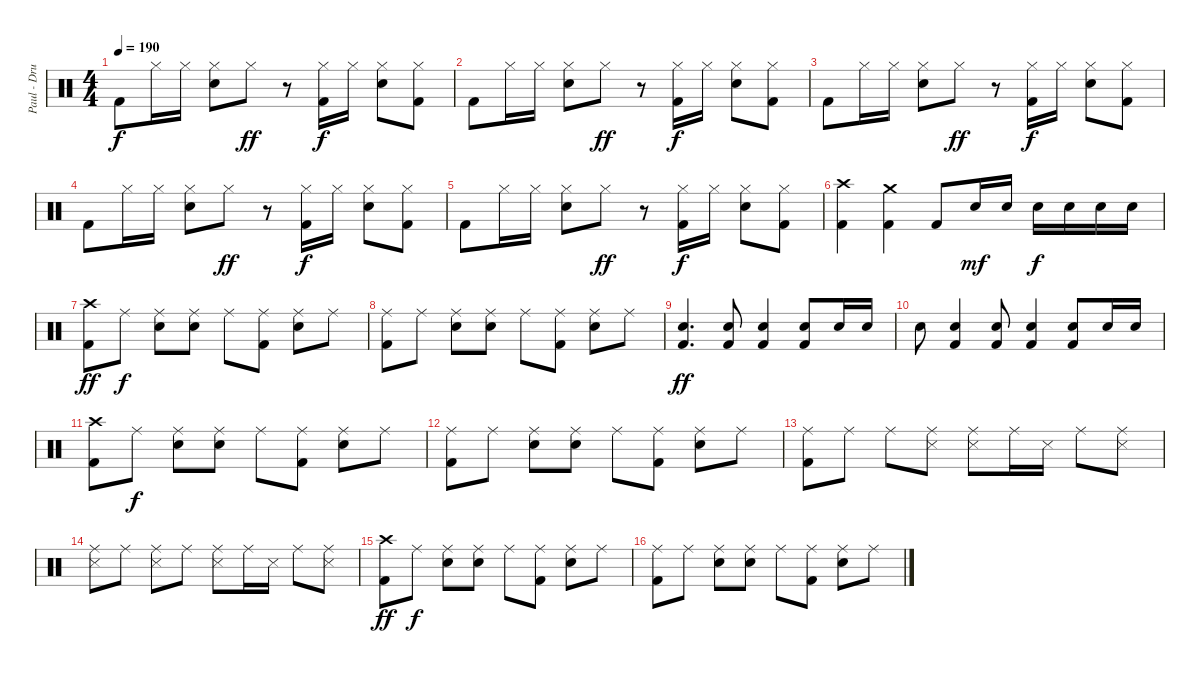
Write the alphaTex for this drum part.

\track ("Paul - Drums" "Paul - Dru") {instrument percussion}
\staff {score}
\articulation defaults
\ts (4 4)
\tempo 190
\clef neutral
\ks c "Kick (hit) 2".8{dy f} "Hi-Hat (closed)".16 "Hi-Hat (closed)".16
("Hi-Hat (closed)" "Electric Snare (hit)").8 "Hi-Hat (closed)".8{dy ff} r.8 ("Hi-Hat (closed)" "Kick (hit) 2").16{dy f} "Hi-Hat (closed)".16 ("Hi-Hat (closed)" "Electric Snare (hit)").8 ("Hi-Hat (closed)" "Kick (hit) 2").8 |
"Kick (hit) 2".8 "Hi-Hat (closed)".16 "Hi-Hat (closed)".16 ("Hi-Hat (closed)" "Electric Snare (hit)").8 "Hi-Hat (closed)".8{dy ff} r.8 ("Hi-Hat (closed)" "Kick (hit) 2").16{dy f} "Hi-Hat (closed)".16 ("Hi-Hat (closed)" "Electric Snare (hit)").8 ("Hi-Hat (closed)" "Kick (hit) 2").8 |
"Kick (hit) 2".8 "Hi-Hat (closed)".16 "Hi-Hat (closed)".16 ("Hi-Hat (closed)" "Electric Snare (hit)").8 "Hi-Hat (closed)".8{dy ff} r.8 ("Hi-Hat (closed)" "Kick (hit) 2").16{dy f} "Hi-Hat (closed)".16 ("Hi-Hat (closed)" "Electric Snare (hit)").8 ("Hi-Hat (closed)" "Kick (hit) 2").8 |
"Kick (hit) 2".8 "Hi-Hat (closed)".16 "Hi-Hat (closed)".16 ("Hi-Hat (closed)" "Electric Snare (hit)").8 "Hi-Hat (closed)".8{dy ff} r.8 ("Hi-Hat (closed)" "Kick (hit) 2").16{dy f} "Hi-Hat (closed)".16 ("Hi-Hat (closed)" "Electric Snare (hit)").8 ("Hi-Hat (closed)" "Kick (hit) 2").8 |
"Kick (hit) 2".8 "Hi-Hat (closed)".16 "Hi-Hat (closed)".16 ("Hi-Hat (closed)" "Electric Snare (hit)").8 "Hi-Hat (closed)".8{dy ff} r.8 ("Hi-Hat (closed)" "Kick (hit) 2").16{dy f} "Hi-Hat (closed)".16 ("Hi-Hat (closed)" "Electric Snare (hit)").8 ("Hi-Hat (closed)" "Kick (hit) 2").8 |
("Crash high (hit)" "Kick (hit) 2").4 ("Crash medium (hit)" "Kick (hit) 2").4 "Kick (hit) 2".8 "Electric Snare (hit)".16{dy mf} "Electric Snare (hit)".16 "Electric Snare (hit)".16{dy f} "Electric Snare (hit)".16 "Electric Snare (hit)".16 "Electric Snare (hit)".16 |
("Crash high (hit)" "Kick (hit) 2").8{dy ff} "Ride (middle)".8{dy f} ("Ride (middle)" "Electric Snare (hit)").8 ("Ride (middle)" "Electric Snare (hit)").8 "Ride (middle)".8 ("Ride (middle)" "Kick (hit) 2").8 ("Ride (middle)" "Electric Snare (hit)").8 "Ride (middle)".8 |
("Ride (middle)" "Kick (hit) 2").8 "Ride (middle)".8 ("Ride (middle)" "Electric Snare (hit)").8 ("Ride (middle)" "Electric Snare (hit)").8 "Ride (middle)".8 ("Ride (middle)" "Kick (hit) 2").8 ("Ride (middle)" "Electric Snare (hit)").8 "Ride (middle)".8 |
("Electric Snare (hit)" "Kick (hit) 2").4{d dy ff} ("Electric Snare (hit)" "Kick (hit) 2").8 ("Electric Snare (hit)" "Kick (hit) 2").4 ("Electric Snare (hit)" "Kick (hit) 2").8 "Electric Snare (hit)".16 "Electric Snare (hit)".16 |
"Electric Snare (hit)".8 ("Electric Snare (hit)" "Kick (hit) 2").4 ("Electric Snare (hit)" "Kick (hit) 2").8 ("Electric Snare (hit)" "Kick (hit) 2").4 ("Electric Snare (hit)" "Kick (hit) 2").8 "Electric Snare (hit)".16 "Electric Snare (hit)".16 |
("Crash high (hit)" "Kick (hit) 2").8 "Ride (middle)".8{dy f} ("Ride (middle)" "Electric Snare (hit)").8 ("Ride (middle)" "Electric Snare (hit)").8 "Ride (middle)".8 ("Ride (middle)" "Kick (hit) 2").8 ("Ride (middle)" "Electric Snare (hit)").8 "Ride (middle)".8 |
("Ride (middle)" "Kick (hit) 2").8 "Ride (middle)".8 ("Ride (middle)" "Electric Snare (hit)").8 ("Ride (middle)" "Electric Snare (hit)").8 "Ride (middle)".8 ("Ride (middle)" "Kick (hit) 2").8 ("Ride (middle)" "Electric Snare (hit)").8 "Ride (middle)".8 |
("Ride (middle)" "Kick (hit) 2").8 "Ride (middle)".8 "Ride (middle)".8 ("Ride (middle)" "Snare (side stick) 3").8 ("Ride (middle)" "Snare (side stick) 3").8 "Ride (middle)".16 "Snare (side stick) 3".16 "Ride (middle)".8 ("Ride (middle)" "Snare (side stick) 3").8 |
("Ride (middle)" "Snare (side stick) 3").8 "Ride (middle)".8 ("Ride (middle)" "Snare (side stick) 3").8 "Ride (middle)".8 ("Ride (middle)" "Snare (side stick) 3").8 "Ride (middle)".16 "Snare (side stick) 3".16 "Ride (middle)".8 ("Ride (middle)" "Snare (side stick) 3").8 |
("Crash high (hit)" "Kick (hit) 2").8{dy ff} "Ride (middle)".8{dy f} ("Ride (middle)" "Electric Snare (hit)").8 ("Ride (middle)" "Electric Snare (hit)").8 "Ride (middle)".8 ("Ride (middle)" "Kick (hit) 2").8 ("Ride (middle)" "Electric Snare (hit)").8 "Ride (middle)".8 |
("Ride (middle)" "Kick (hit) 2").8 "Ride (middle)".8 ("Ride (middle)" "Electric Snare (hit)").8 ("Ride (middle)" "Electric Snare (hit)").8 "Ride (middle)".8 ("Ride (middle)" "Kick (hit) 2").8 ("Ride (middle)" "Electric Snare (hit)").8 "Ride (middle)".8
